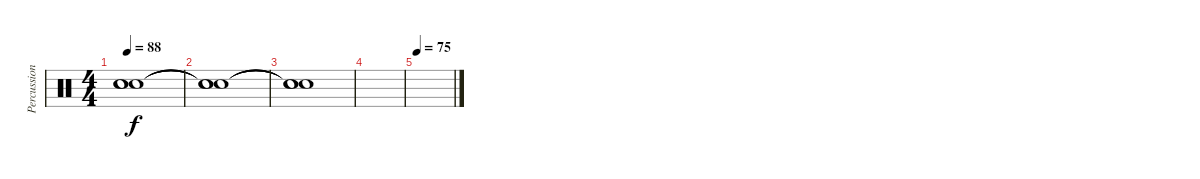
\track ("Percussion" "Percussion") {instrument percussion}
\staff {score}
\articulation defaults
\ts (4 4)
\tempo 88
\clef neutral
\ks c
("Snare (hit)"{t} "Snare (hit)"{t} "Snare (hit)"{t}).1{dy f} |
("Snare (hit)"{t} "Snare (hit)"{t} "Snare (hit)"{t}).1 |
("Snare (hit)"{t} "Snare (hit)"{t} "Snare (hit)"{t}).1 |
|
\tempo 75
